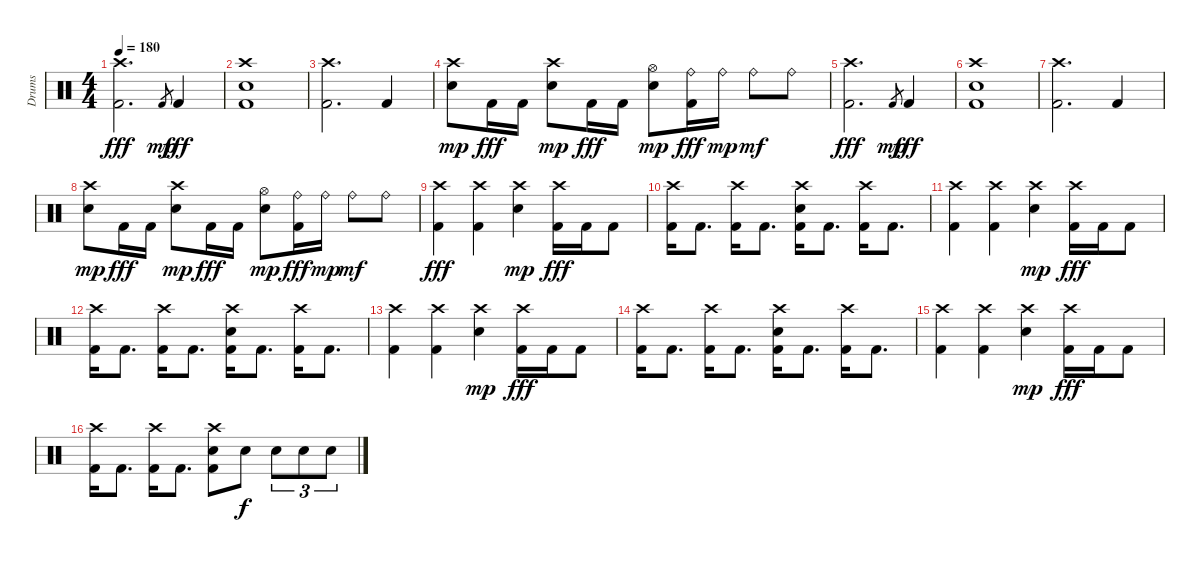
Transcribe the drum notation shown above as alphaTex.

\track ("Drums" "Drums") {instrument percussion}
\staff {score}
\articulation defaults
\ts (4 4)
\tempo 180
\clef neutral
\ks c
("Crash high (hit)" "Kick (hit) 2").2{d dy fff} "Kick (hit) 2".8{gr dy mp} "Kick (hit) 2".4{dy fff} |
("Crash high (hit)" "Electric Snare (hit)" "Kick (hit) 2").1 |
("Crash high (hit)" "Kick (hit) 2").2{d} "Kick (hit) 2".4 |
("Crash high (hit)" "Electric Snare (hit)").8{dy mp} "Kick (hit) 2".16{dy fff} "Kick (hit) 2".16 ("Crash high (hit)" "Electric Snare (hit)").8{dy mp} "Kick (hit) 2".16{dy fff} "Kick (hit) 2".16 ("Hi-Hat (open)" "Electric Snare (hit)").8{dy mp} ("Ride (bell)" "Kick (hit) 2").16{dy fff} "Ride (bell)".16{dy mp} "Ride (bell)".8{dy mf} "Ride (bell)".8 |
("Crash high (hit)" "Kick (hit) 2").2{d dy fff} "Kick (hit) 2".8{gr dy mp} "Kick (hit) 2".4{dy fff} |
("Crash high (hit)" "Electric Snare (hit)" "Kick (hit) 2").1 |
("Crash high (hit)" "Kick (hit) 2").2{d} "Kick (hit) 2".4 |
("Crash high (hit)" "Electric Snare (hit)").8{dy mp} "Kick (hit) 2".16{dy fff} "Kick (hit) 2".16 ("Crash high (hit)" "Electric Snare (hit)").8{dy mp} "Kick (hit) 2".16{dy fff} "Kick (hit) 2".16 ("Hi-Hat (open)" "Electric Snare (hit)").8{dy mp} ("Ride (bell)" "Kick (hit) 2").16{dy fff} "Ride (bell)".16{dy mp} "Ride (bell)".8{dy mf} "Ride (bell)".8 |
("Crash high (hit)" "Kick (hit) 2").4{dy fff} ("Crash high (hit)" "Kick (hit) 2").4 ("Crash high (hit)" "Electric Snare (hit)").4{dy mp} ("Crash high (hit)" "Kick (hit) 2").16{dy fff} "Kick (hit) 2".16 "Kick (hit) 2".8 |
("Crash high (hit)" "Kick (hit) 2").16 "Kick (hit) 2".8{d} ("Crash high (hit)" "Kick (hit) 2").16 "Kick (hit) 2".8{d} ("Crash high (hit)" "Electric Snare (hit)" "Kick (hit) 2").16 "Kick (hit) 2".8{d} ("Crash high (hit)" "Kick (hit) 2").16 "Kick (hit) 2".8{d} |
("Crash high (hit)" "Kick (hit) 2").4 ("Crash high (hit)" "Kick (hit) 2").4 ("Crash high (hit)" "Electric Snare (hit)").4{dy mp} ("Crash high (hit)" "Kick (hit) 2").16{dy fff} "Kick (hit) 2".16 "Kick (hit) 2".8 |
("Crash high (hit)" "Kick (hit) 2").16 "Kick (hit) 2".8{d} ("Crash high (hit)" "Kick (hit) 2").16 "Kick (hit) 2".8{d} ("Crash high (hit)" "Electric Snare (hit)" "Kick (hit) 2").16 "Kick (hit) 2".8{d} ("Crash high (hit)" "Kick (hit) 2").16 "Kick (hit) 2".8{d} |
("Crash high (hit)" "Kick (hit) 2").4 ("Crash high (hit)" "Kick (hit) 2").4 ("Crash high (hit)" "Electric Snare (hit)").4{dy mp} ("Crash high (hit)" "Kick (hit) 2").16{dy fff} "Kick (hit) 2".16 "Kick (hit) 2".8 |
("Crash high (hit)" "Kick (hit) 2").16 "Kick (hit) 2".8{d} ("Crash high (hit)" "Kick (hit) 2").16 "Kick (hit) 2".8{d} ("Crash high (hit)" "Electric Snare (hit)" "Kick (hit) 2").16 "Kick (hit) 2".8{d} ("Crash high (hit)" "Kick (hit) 2").16 "Kick (hit) 2".8{d} |
("Crash high (hit)" "Kick (hit) 2").4 ("Crash high (hit)" "Kick (hit) 2").4 ("Crash high (hit)" "Electric Snare (hit)").4{dy mp} ("Crash high (hit)" "Kick (hit) 2").16{dy fff} "Kick (hit) 2".16 "Kick (hit) 2".8 |
("Crash high (hit)" "Kick (hit) 2").16 "Kick (hit) 2".8{d} ("Crash high (hit)" "Kick (hit) 2").16 "Kick (hit) 2".8{d} ("Crash high (hit)" "Electric Snare (hit)" "Kick (hit) 2").8 "Electric Snare (hit)".8{dy f} "Electric Snare (hit)".8{tu (3 2)} "Electric Snare (hit)".8{tu (3 2)} "Electric Snare (hit)".8{tu (3 2)}
